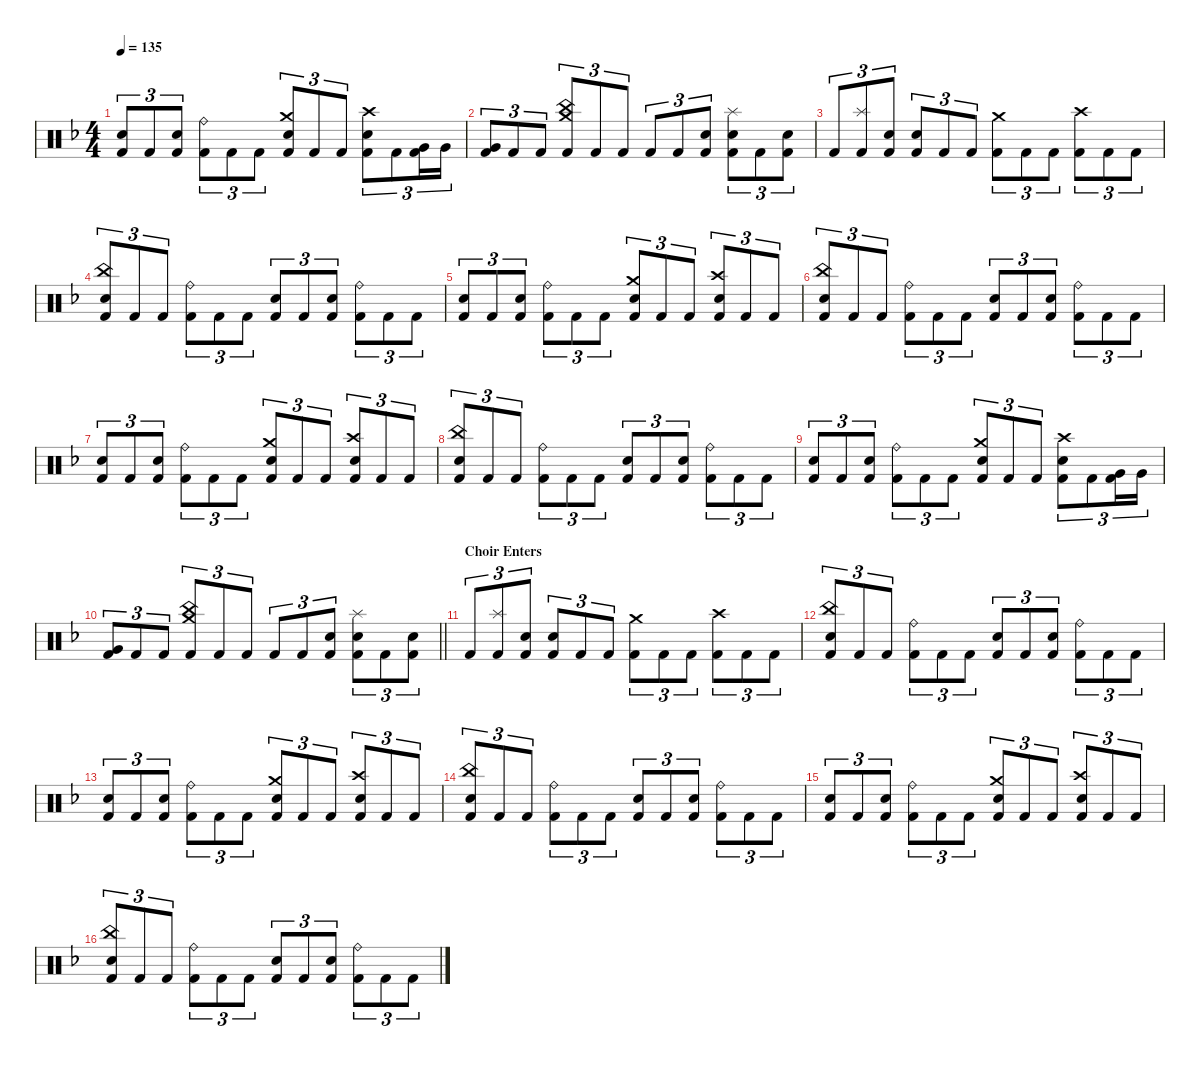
\defaultSystemsLayout 4
\hideDynamics
\bracketExtendMode nobrackets
\singleTrackTrackNamePolicy hidden
\multiTrackTrackNamePolicy hidden
\firstSystemTrackNameMode fullname
\firstSystemTrackNameOrientation horizontal
\otherSystemsTrackNameOrientation horizontal
\track ("Drums" "drm.") {instrument percussion}
\staff {score}
\articulation defaults
\ts (4 4)
\tempo 135
\clef neutral
\ks dminor
("Snare (hit) 2"{acc forcenatural} "Kick (hit) 2"{acc forcenatural}).8{tu (3 2) dy f beam Up} "Kick (hit) 2"{acc forcenatural}.8{tu (3 2) beam Up} ("Snare (hit) 2"{acc forcenatural} "Kick (hit) 2"{acc forcenatural}).8{tu (3 2) beam Up} ("Ride (bell)"{acc forcenatural} "Kick (hit) 2"{acc forcenatural}).8{tu (3 2) beam Down} "Kick (hit) 2"{acc forcenatural}.8{tu (3 2) beam Down} "Kick (hit) 2"{acc forcenatural}.8{tu (3 2) beam Down} ("Crash medium (hit)"{acc forcenatural} "Snare (hit) 2"{acc forcenatural} "Kick (hit) 2"{acc forcenatural}).8{tu (3 2) beam Up} "Kick (hit) 2"{acc forcenatural}.8{tu (3 2) beam Up} "Kick (hit) 2"{acc forcenatural}.8{tu (3 2) beam Up} ("Crash high (hit)"{acc forcenatural} "Snare (hit) 2"{acc forcenatural} "Kick (hit) 2"{acc forcenatural}).8{tu (3 2) beam Down} "Kick (hit) 2"{acc forcenatural}.8{tu (3 2) beam Down} ("Very Low Tom (hit)"{acc forcenatural} "Kick (hit) 2"{acc forcenatural}).16{tu (3 2) beam Down} "Very Low Tom (hit)"{acc forcenatural}.16{tu (3 2) beam Down} |
("Very Low Tom (hit)"{acc forcenatural} "Kick (hit) 2"{acc forcenatural}).8{tu (3 2) beam Up} "Kick (hit) 2"{acc forcenatural}.8{tu (3 2) beam Up} "Kick (hit) 2"{acc forcenatural}.8{tu (3 2) beam Up} ("China (hit)"{acc forcenatural} "Crash medium (hit)"{acc forcenatural} "Kick (hit) 2"{acc forcenatural}).8{tu (3 2) beam Up} "Kick (hit) 2"{acc forcenatural}.8{tu (3 2) beam Up} "Kick (hit) 2"{acc forcenatural}.8{tu (3 2) beam Up} "Kick (hit) 2"{acc forcenatural}.8{tu (3 2) beam Up} "Kick (hit) 2"{acc forcenatural}.8{tu (3 2) beam Up} ("Snare (hit) 2"{acc forcenatural} "Kick (hit) 2"{acc forcenatural}).8{tu (3 2) beam Up} ("Splash (hit)"{acc forcenatural} "Snare (hit) 2"{acc forcenatural} "Kick (hit) 2"{acc forcenatural}).8{tu (3 2) beam Down} "Kick (hit) 2"{acc forcenatural}.8{tu (3 2) beam Down} ("Snare (hit) 2"{acc forcenatural} "Kick (hit) 2"{acc forcenatural}).8{tu (3 2) beam Down} |
"Kick (hit) 2"{acc forcenatural}.8{tu (3 2) beam Up} ("Splash (hit)"{acc forcenatural} "Kick (hit) 2"{acc forcenatural}).8{tu (3 2) beam Up} ("Snare (hit) 2"{acc forcenatural} "Kick (hit) 2"{acc forcenatural}).8{tu (3 2) beam Up} ("Snare (hit) 2"{acc forcenatural} "Kick (hit) 2"{acc forcenatural}).8{tu (3 2) beam Up} "Kick (hit) 2"{acc forcenatural}.8{tu (3 2) beam Up} "Kick (hit) 2"{acc forcenatural}.8{tu (3 2) beam Up} ("Crash medium (hit)"{acc forcenatural} "Kick (hit) 2"{acc forcenatural}).8{tu (3 2) beam Down} "Kick (hit) 2"{acc forcenatural}.8{tu (3 2) beam Down} "Kick (hit) 2"{acc forcenatural}.8{tu (3 2) beam Down} ("Crash high (hit)"{acc forcenatural} "Kick (hit) 2"{acc forcenatural}).8{tu (3 2) beam Down} "Kick (hit) 2"{acc forcenatural}.8{tu (3 2) beam Down} "Kick (hit) 2"{acc forcenatural}.8{tu (3 2) beam Down} |
("China (hit)"{acc forcenatural} "Snare (hit) 2"{acc forcenatural} "Kick (hit) 2"{acc forcenatural}).8{tu (3 2) beam Up} "Kick (hit) 2"{acc forcenatural}.8{tu (3 2) beam Up} "Kick (hit) 2"{acc forcenatural}.8{tu (3 2) beam Up} ("Ride (bell)"{acc forcenatural} "Kick (hit) 2"{acc forcenatural}).8{tu (3 2) beam Down} "Kick (hit) 2"{acc forcenatural}.8{tu (3 2) beam Down} "Kick (hit) 2"{acc forcenatural}.8{tu (3 2) beam Down} ("Snare (hit) 2"{acc forcenatural} "Kick (hit) 2"{acc forcenatural}).8{tu (3 2) beam Up} "Kick (hit) 2"{acc forcenatural}.8{tu (3 2) beam Up} ("Snare (hit) 2"{acc forcenatural} "Kick (hit) 2"{acc forcenatural}).8{tu (3 2) beam Up} ("Ride (bell)"{acc forcenatural} "Kick (hit) 2"{acc forcenatural}).8{tu (3 2) beam Down} "Kick (hit) 2"{acc forcenatural}.8{tu (3 2) beam Down} "Kick (hit) 2"{acc forcenatural}.8{tu (3 2) beam Down} |
("Snare (hit) 2"{acc forcenatural} "Kick (hit) 2"{acc forcenatural}).8{tu (3 2) beam Up} "Kick (hit) 2"{acc forcenatural}.8{tu (3 2) beam Up} ("Snare (hit) 2"{acc forcenatural} "Kick (hit) 2"{acc forcenatural}).8{tu (3 2) beam Up} ("Ride (bell)"{acc forcenatural} "Kick (hit) 2"{acc forcenatural}).8{tu (3 2) beam Down} "Kick (hit) 2"{acc forcenatural}.8{tu (3 2) beam Down} "Kick (hit) 2"{acc forcenatural}.8{tu (3 2) beam Down} ("Crash medium (hit)"{acc forcenatural} "Snare (hit) 2"{acc forcenatural} "Kick (hit) 2"{acc forcenatural}).8{tu (3 2) beam Up} "Kick (hit) 2"{acc forcenatural}.8{tu (3 2) beam Up} "Kick (hit) 2"{acc forcenatural}.8{tu (3 2) beam Up} ("Crash high (hit)"{acc forcenatural} "Snare (hit) 2"{acc forcenatural} "Kick (hit) 2"{acc forcenatural}).8{tu (3 2) beam Up} "Kick (hit) 2"{acc forcenatural}.8{tu (3 2) beam Up} "Kick (hit) 2"{acc forcenatural}.8{tu (3 2) beam Up} |
("China (hit)"{acc forcenatural} "Snare (hit) 2"{acc forcenatural} "Kick (hit) 2"{acc forcenatural}).8{tu (3 2) beam Up} "Kick (hit) 2"{acc forcenatural}.8{tu (3 2) beam Up} "Kick (hit) 2"{acc forcenatural}.8{tu (3 2) beam Up} ("Ride (bell)"{acc forcenatural} "Kick (hit) 2"{acc forcenatural}).8{tu (3 2) beam Down} "Kick (hit) 2"{acc forcenatural}.8{tu (3 2) beam Down} "Kick (hit) 2"{acc forcenatural}.8{tu (3 2) beam Down} ("Snare (hit) 2"{acc forcenatural} "Kick (hit) 2"{acc forcenatural}).8{tu (3 2) beam Up} "Kick (hit) 2"{acc forcenatural}.8{tu (3 2) beam Up} ("Snare (hit) 2"{acc forcenatural} "Kick (hit) 2"{acc forcenatural}).8{tu (3 2) beam Up} ("Ride (bell)"{acc forcenatural} "Kick (hit) 2"{acc forcenatural}).8{tu (3 2) beam Down} "Kick (hit) 2"{acc forcenatural}.8{tu (3 2) beam Down} "Kick (hit) 2"{acc forcenatural}.8{tu (3 2) beam Down} |
("Snare (hit) 2"{acc forcenatural} "Kick (hit) 2"{acc forcenatural}).8{tu (3 2) beam Up} "Kick (hit) 2"{acc forcenatural}.8{tu (3 2) beam Up} ("Snare (hit) 2"{acc forcenatural} "Kick (hit) 2"{acc forcenatural}).8{tu (3 2) beam Up} ("Ride (bell)"{acc forcenatural} "Kick (hit) 2"{acc forcenatural}).8{tu (3 2) beam Down} "Kick (hit) 2"{acc forcenatural}.8{tu (3 2) beam Down} "Kick (hit) 2"{acc forcenatural}.8{tu (3 2) beam Down} ("Crash medium (hit)"{acc forcenatural} "Snare (hit) 2"{acc forcenatural} "Kick (hit) 2"{acc forcenatural}).8{tu (3 2) beam Up} "Kick (hit) 2"{acc forcenatural}.8{tu (3 2) beam Up} "Kick (hit) 2"{acc forcenatural}.8{tu (3 2) beam Up} ("Crash high (hit)"{acc forcenatural} "Snare (hit) 2"{acc forcenatural} "Kick (hit) 2"{acc forcenatural}).8{tu (3 2) beam Up} "Kick (hit) 2"{acc forcenatural}.8{tu (3 2) beam Up} "Kick (hit) 2"{acc forcenatural}.8{tu (3 2) beam Up} |
("China (hit)"{acc forcenatural} "Snare (hit) 2"{acc forcenatural} "Kick (hit) 2"{acc forcenatural}).8{tu (3 2) beam Up} "Kick (hit) 2"{acc forcenatural}.8{tu (3 2) beam Up} "Kick (hit) 2"{acc forcenatural}.8{tu (3 2) beam Up} ("Ride (bell)"{acc forcenatural} "Kick (hit) 2"{acc forcenatural}).8{tu (3 2) beam Down} "Kick (hit) 2"{acc forcenatural}.8{tu (3 2) beam Down} "Kick (hit) 2"{acc forcenatural}.8{tu (3 2) beam Down} ("Snare (hit) 2"{acc forcenatural} "Kick (hit) 2"{acc forcenatural}).8{tu (3 2) beam Up} "Kick (hit) 2"{acc forcenatural}.8{tu (3 2) beam Up} ("Snare (hit) 2"{acc forcenatural} "Kick (hit) 2"{acc forcenatural}).8{tu (3 2) beam Up} ("Ride (bell)"{acc forcenatural} "Kick (hit) 2"{acc forcenatural}).8{tu (3 2) beam Down} "Kick (hit) 2"{acc forcenatural}.8{tu (3 2) beam Down} "Kick (hit) 2"{acc forcenatural}.8{tu (3 2) beam Down} |
("Snare (hit) 2"{acc forcenatural} "Kick (hit) 2"{acc forcenatural}).8{tu (3 2) beam Up} "Kick (hit) 2"{acc forcenatural}.8{tu (3 2) beam Up} ("Snare (hit) 2"{acc forcenatural} "Kick (hit) 2"{acc forcenatural}).8{tu (3 2) beam Up} ("Ride (bell)"{acc forcenatural} "Kick (hit) 2"{acc forcenatural}).8{tu (3 2) beam Down} "Kick (hit) 2"{acc forcenatural}.8{tu (3 2) beam Down} "Kick (hit) 2"{acc forcenatural}.8{tu (3 2) beam Down} ("Crash medium (hit)"{acc forcenatural} "Snare (hit) 2"{acc forcenatural} "Kick (hit) 2"{acc forcenatural}).8{tu (3 2) beam Up} "Kick (hit) 2"{acc forcenatural}.8{tu (3 2) beam Up} "Kick (hit) 2"{acc forcenatural}.8{tu (3 2) beam Up} ("Crash high (hit)"{acc forcenatural} "Snare (hit) 2"{acc forcenatural} "Kick (hit) 2"{acc forcenatural}).8{tu (3 2) beam Down} "Kick (hit) 2"{acc forcenatural}.8{tu (3 2) beam Down} ("Very Low Tom (hit)"{acc forcenatural} "Kick (hit) 2"{acc forcenatural}).16{tu (3 2) beam Down} "Very Low Tom (hit)"{acc forcenatural}.16{tu (3 2) beam Down} |
\barLineRight lightlight
("Very Low Tom (hit)"{acc forcenatural} "Kick (hit) 2"{acc forcenatural}).8{tu (3 2) beam Up} "Kick (hit) 2"{acc forcenatural}.8{tu (3 2) beam Up} "Kick (hit) 2"{acc forcenatural}.8{tu (3 2) beam Up} ("China (hit)"{acc forcenatural} "Crash medium (hit)"{acc forcenatural} "Kick (hit) 2"{acc forcenatural}).8{tu (3 2) beam Up} "Kick (hit) 2"{acc forcenatural}.8{tu (3 2) beam Up} "Kick (hit) 2"{acc forcenatural}.8{tu (3 2) beam Up} "Kick (hit) 2"{acc forcenatural}.8{tu (3 2) beam Up} "Kick (hit) 2"{acc forcenatural}.8{tu (3 2) beam Up} ("Snare (hit) 2"{acc forcenatural} "Kick (hit) 2"{acc forcenatural}).8{tu (3 2) beam Up} ("Splash (hit)"{acc forcenatural} "Snare (hit) 2"{acc forcenatural} "Kick (hit) 2"{acc forcenatural}).8{tu (3 2) beam Down} "Kick (hit) 2"{acc forcenatural}.8{tu (3 2) beam Down} ("Snare (hit) 2"{acc forcenatural} "Kick (hit) 2"{acc forcenatural}).8{tu (3 2) beam Down} |
\section ("" "Choir Enters")
"Kick (hit) 2"{acc forcenatural}.8{tu (3 2) beam Up} ("Splash (hit)"{acc forcenatural} "Kick (hit) 2"{acc forcenatural}).8{tu (3 2) beam Up} ("Snare (hit) 2"{acc forcenatural} "Kick (hit) 2"{acc forcenatural}).8{tu (3 2) beam Up} ("Snare (hit) 2"{acc forcenatural} "Kick (hit) 2"{acc forcenatural}).8{tu (3 2) beam Up} "Kick (hit) 2"{acc forcenatural}.8{tu (3 2) beam Up} "Kick (hit) 2"{acc forcenatural}.8{tu (3 2) beam Up} ("Crash medium (hit)"{acc forcenatural} "Kick (hit) 2"{acc forcenatural}).8{tu (3 2) beam Down} "Kick (hit) 2"{acc forcenatural}.8{tu (3 2) beam Down} "Kick (hit) 2"{acc forcenatural}.8{tu (3 2) beam Down} ("Crash high (hit)"{acc forcenatural} "Kick (hit) 2"{acc forcenatural}).8{tu (3 2) beam Down} "Kick (hit) 2"{acc forcenatural}.8{tu (3 2) beam Down} "Kick (hit) 2"{acc forcenatural}.8{tu (3 2) beam Down} |
("China (hit)"{acc forcenatural} "Snare (hit) 2"{acc forcenatural} "Kick (hit) 2"{acc forcenatural}).8{tu (3 2) beam Up} "Kick (hit) 2"{acc forcenatural}.8{tu (3 2) beam Up} "Kick (hit) 2"{acc forcenatural}.8{tu (3 2) beam Up} ("Ride (bell)"{acc forcenatural} "Kick (hit) 2"{acc forcenatural}).8{tu (3 2) beam Down} "Kick (hit) 2"{acc forcenatural}.8{tu (3 2) beam Down} "Kick (hit) 2"{acc forcenatural}.8{tu (3 2) beam Down} ("Snare (hit) 2"{acc forcenatural} "Kick (hit) 2"{acc forcenatural}).8{tu (3 2) beam Up} "Kick (hit) 2"{acc forcenatural}.8{tu (3 2) beam Up} ("Snare (hit) 2"{acc forcenatural} "Kick (hit) 2"{acc forcenatural}).8{tu (3 2) beam Up} ("Ride (bell)"{acc forcenatural} "Kick (hit) 2"{acc forcenatural}).8{tu (3 2) beam Down} "Kick (hit) 2"{acc forcenatural}.8{tu (3 2) beam Down} "Kick (hit) 2"{acc forcenatural}.8{tu (3 2) beam Down} |
("Snare (hit) 2"{acc forcenatural} "Kick (hit) 2"{acc forcenatural}).8{tu (3 2) beam Up} "Kick (hit) 2"{acc forcenatural}.8{tu (3 2) beam Up} ("Snare (hit) 2"{acc forcenatural} "Kick (hit) 2"{acc forcenatural}).8{tu (3 2) beam Up} ("Ride (bell)"{acc forcenatural} "Kick (hit) 2"{acc forcenatural}).8{tu (3 2) beam Down} "Kick (hit) 2"{acc forcenatural}.8{tu (3 2) beam Down} "Kick (hit) 2"{acc forcenatural}.8{tu (3 2) beam Down} ("Crash medium (hit)"{acc forcenatural} "Snare (hit) 2"{acc forcenatural} "Kick (hit) 2"{acc forcenatural}).8{tu (3 2) beam Up} "Kick (hit) 2"{acc forcenatural}.8{tu (3 2) beam Up} "Kick (hit) 2"{acc forcenatural}.8{tu (3 2) beam Up} ("Crash high (hit)"{acc forcenatural} "Snare (hit) 2"{acc forcenatural} "Kick (hit) 2"{acc forcenatural}).8{tu (3 2) beam Up} "Kick (hit) 2"{acc forcenatural}.8{tu (3 2) beam Up} "Kick (hit) 2"{acc forcenatural}.8{tu (3 2) beam Up} |
("China (hit)"{acc forcenatural} "Snare (hit) 2"{acc forcenatural} "Kick (hit) 2"{acc forcenatural}).8{tu (3 2) beam Up} "Kick (hit) 2"{acc forcenatural}.8{tu (3 2) beam Up} "Kick (hit) 2"{acc forcenatural}.8{tu (3 2) beam Up} ("Ride (bell)"{acc forcenatural} "Kick (hit) 2"{acc forcenatural}).8{tu (3 2) beam Down} "Kick (hit) 2"{acc forcenatural}.8{tu (3 2) beam Down} "Kick (hit) 2"{acc forcenatural}.8{tu (3 2) beam Down} ("Snare (hit) 2"{acc forcenatural} "Kick (hit) 2"{acc forcenatural}).8{tu (3 2) beam Up} "Kick (hit) 2"{acc forcenatural}.8{tu (3 2) beam Up} ("Snare (hit) 2"{acc forcenatural} "Kick (hit) 2"{acc forcenatural}).8{tu (3 2) beam Up} ("Ride (bell)"{acc forcenatural} "Kick (hit) 2"{acc forcenatural}).8{tu (3 2) beam Down} "Kick (hit) 2"{acc forcenatural}.8{tu (3 2) beam Down} "Kick (hit) 2"{acc forcenatural}.8{tu (3 2) beam Down} |
("Snare (hit) 2"{acc forcenatural} "Kick (hit) 2"{acc forcenatural}).8{tu (3 2) beam Up} "Kick (hit) 2"{acc forcenatural}.8{tu (3 2) beam Up} ("Snare (hit) 2"{acc forcenatural} "Kick (hit) 2"{acc forcenatural}).8{tu (3 2) beam Up} ("Ride (bell)"{acc forcenatural} "Kick (hit) 2"{acc forcenatural}).8{tu (3 2) beam Down} "Kick (hit) 2"{acc forcenatural}.8{tu (3 2) beam Down} "Kick (hit) 2"{acc forcenatural}.8{tu (3 2) beam Down} ("Crash medium (hit)"{acc forcenatural} "Snare (hit) 2"{acc forcenatural} "Kick (hit) 2"{acc forcenatural}).8{tu (3 2) beam Up} "Kick (hit) 2"{acc forcenatural}.8{tu (3 2) beam Up} "Kick (hit) 2"{acc forcenatural}.8{tu (3 2) beam Up} ("Crash high (hit)"{acc forcenatural} "Snare (hit) 2"{acc forcenatural} "Kick (hit) 2"{acc forcenatural}).8{tu (3 2) beam Up} "Kick (hit) 2"{acc forcenatural}.8{tu (3 2) beam Up} "Kick (hit) 2"{acc forcenatural}.8{tu (3 2) beam Up} |
("China (hit)"{acc forcenatural} "Snare (hit) 2"{acc forcenatural} "Kick (hit) 2"{acc forcenatural}).8{tu (3 2) beam Up} "Kick (hit) 2"{acc forcenatural}.8{tu (3 2) beam Up} "Kick (hit) 2"{acc forcenatural}.8{tu (3 2) beam Up} ("Ride (bell)"{acc forcenatural} "Kick (hit) 2"{acc forcenatural}).8{tu (3 2) beam Down} "Kick (hit) 2"{acc forcenatural}.8{tu (3 2) beam Down} "Kick (hit) 2"{acc forcenatural}.8{tu (3 2) beam Down} ("Snare (hit) 2"{acc forcenatural} "Kick (hit) 2"{acc forcenatural}).8{tu (3 2) beam Up} "Kick (hit) 2"{acc forcenatural}.8{tu (3 2) beam Up} ("Snare (hit) 2"{acc forcenatural} "Kick (hit) 2"{acc forcenatural}).8{tu (3 2) beam Up} ("Ride (bell)"{acc forcenatural} "Kick (hit) 2"{acc forcenatural}).8{tu (3 2) beam Down} "Kick (hit) 2"{acc forcenatural}.8{tu (3 2) beam Down} "Kick (hit) 2"{acc forcenatural}.8{tu (3 2) beam Down}
